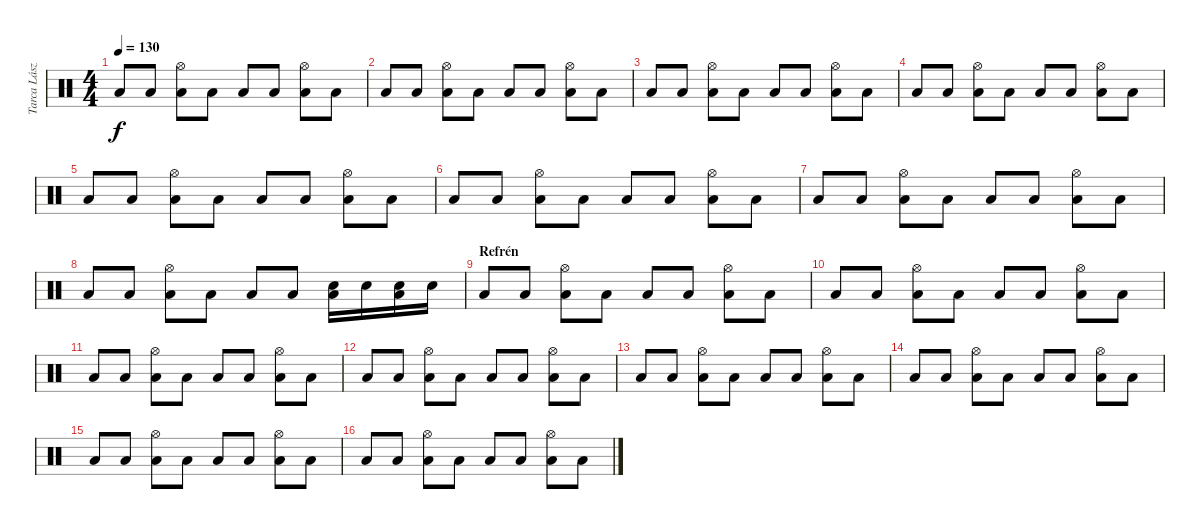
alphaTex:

\track ("Tarca László" "Tarca Lász") {instrument percussion}
\staff {score}
\articulation defaults
\ts (4 4)
\tempo 130
\clef neutral
\ks c "Low Tom (hit)".8{dy f} "Low Tom (hit)".8
("Low Tom (hit)" "Hi-Hat (open)").8 "Low Tom (hit)".8 "Low Tom (hit)".8 "Low Tom (hit)".8 ("Low Tom (hit)" "Hi-Hat (open)").8 "Low Tom (hit)".8 |
"Low Tom (hit)".8 "Low Tom (hit)".8 ("Low Tom (hit)" "Hi-Hat (open)").8 "Low Tom (hit)".8 "Low Tom (hit)".8 "Low Tom (hit)".8 ("Low Tom (hit)" "Hi-Hat (open)").8 "Low Tom (hit)".8 |
"Low Tom (hit)".8 "Low Tom (hit)".8 ("Low Tom (hit)" "Hi-Hat (open)").8 "Low Tom (hit)".8 "Low Tom (hit)".8 "Low Tom (hit)".8 ("Low Tom (hit)" "Hi-Hat (open)").8 "Low Tom (hit)".8 |
"Low Tom (hit)".8 "Low Tom (hit)".8 ("Low Tom (hit)" "Hi-Hat (open)").8 "Low Tom (hit)".8 "Low Tom (hit)".8 "Low Tom (hit)".8 ("Low Tom (hit)" "Hi-Hat (open)").8 "Low Tom (hit)".8 |
"Low Tom (hit)".8 "Low Tom (hit)".8 ("Low Tom (hit)" "Hi-Hat (open)").8 "Low Tom (hit)".8 "Low Tom (hit)".8 "Low Tom (hit)".8 ("Low Tom (hit)" "Hi-Hat (open)").8 "Low Tom (hit)".8 |
"Low Tom (hit)".8 "Low Tom (hit)".8 ("Low Tom (hit)" "Hi-Hat (open)").8 "Low Tom (hit)".8 "Low Tom (hit)".8 "Low Tom (hit)".8 ("Low Tom (hit)" "Hi-Hat (open)").8 "Low Tom (hit)".8 |
"Low Tom (hit)".8 "Low Tom (hit)".8 ("Low Tom (hit)" "Hi-Hat (open)").8 "Low Tom (hit)".8 "Low Tom (hit)".8 "Low Tom (hit)".8 ("Low Tom (hit)" "Hi-Hat (open)").8 "Low Tom (hit)".8 |
"Low Tom (hit)".8 "Low Tom (hit)".8 ("Low Tom (hit)" "Hi-Hat (open)").8 "Low Tom (hit)".8 "Low Tom (hit)".8 "Low Tom (hit)".8 ("Snare (hit) 2" "Low Tom (hit)").16 "Snare (hit) 2".16 ("Snare (hit) 2" "Low Tom (hit)").16 "Snare (hit) 2".16 |
\section ("" "Refrén")
"Low Tom (hit)".8 "Low Tom (hit)".8 ("Low Tom (hit)" "Hi-Hat (open)").8 "Low Tom (hit)".8 "Low Tom (hit)".8 "Low Tom (hit)".8 ("Low Tom (hit)" "Hi-Hat (open)").8 "Low Tom (hit)".8 |
"Low Tom (hit)".8 "Low Tom (hit)".8 ("Low Tom (hit)" "Hi-Hat (open)").8 "Low Tom (hit)".8 "Low Tom (hit)".8 "Low Tom (hit)".8 ("Low Tom (hit)" "Hi-Hat (open)").8 "Low Tom (hit)".8 |
"Low Tom (hit)".8 "Low Tom (hit)".8 ("Low Tom (hit)" "Hi-Hat (open)").8 "Low Tom (hit)".8 "Low Tom (hit)".8 "Low Tom (hit)".8 ("Low Tom (hit)" "Hi-Hat (open)").8 "Low Tom (hit)".8 |
"Low Tom (hit)".8 "Low Tom (hit)".8 ("Low Tom (hit)" "Hi-Hat (open)").8 "Low Tom (hit)".8 "Low Tom (hit)".8 "Low Tom (hit)".8 ("Low Tom (hit)" "Hi-Hat (open)").8 "Low Tom (hit)".8 |
"Low Tom (hit)".8 "Low Tom (hit)".8 ("Low Tom (hit)" "Hi-Hat (open)").8 "Low Tom (hit)".8 "Low Tom (hit)".8 "Low Tom (hit)".8 ("Low Tom (hit)" "Hi-Hat (open)").8 "Low Tom (hit)".8 |
"Low Tom (hit)".8 "Low Tom (hit)".8 ("Low Tom (hit)" "Hi-Hat (open)").8 "Low Tom (hit)".8 "Low Tom (hit)".8 "Low Tom (hit)".8 ("Low Tom (hit)" "Hi-Hat (open)").8 "Low Tom (hit)".8 |
"Low Tom (hit)".8 "Low Tom (hit)".8 ("Low Tom (hit)" "Hi-Hat (open)").8 "Low Tom (hit)".8 "Low Tom (hit)".8 "Low Tom (hit)".8 ("Low Tom (hit)" "Hi-Hat (open)").8 "Low Tom (hit)".8 |
"Low Tom (hit)".8 "Low Tom (hit)".8 ("Low Tom (hit)" "Hi-Hat (open)").8 "Low Tom (hit)".8 "Low Tom (hit)".8 "Low Tom (hit)".8 ("Low Tom (hit)" "Hi-Hat (open)").8 "Low Tom (hit)".8
